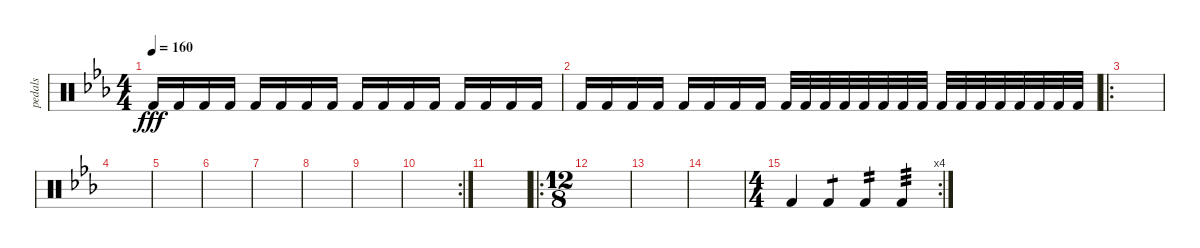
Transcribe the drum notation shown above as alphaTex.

\track ("pedals" "pedals") {instrument percussion}
\staff {score}
\articulation defaults
\ts (4 4)
\tempo 160
\clef neutral
\ks cminor "Kick (hit) 2".16{dy fff} "Kick (hit) 2".16 "Kick (hit) 2".16 "Kick (hit) 2".16 "Kick (hit) 2".16 "Kick (hit) 2".16 "Kick (hit) 2".16 "Kick (hit) 2".16 "Kick (hit) 2".16 "Kick (hit) 2".16 "Kick (hit) 2".16 "Kick (hit) 2".16 "Kick (hit) 2".16 "Kick (hit) 2".16 "Kick (hit) 2".16 "Kick (hit) 2".16
|
"Kick (hit) 2".16 "Kick (hit) 2".16 "Kick (hit) 2".16 "Kick (hit) 2".16 "Kick (hit) 2".16 "Kick (hit) 2".16 "Kick (hit) 2".16 "Kick (hit) 2".16 "Kick (hit) 2".32 "Kick (hit) 2".32 "Kick (hit) 2".32 "Kick (hit) 2".32 "Kick (hit) 2".32 "Kick (hit) 2".32 "Kick (hit) 2".32 "Kick (hit) 2".32 "Kick (hit) 2".32 "Kick (hit) 2".32 "Kick (hit) 2".32 "Kick (hit) 2".32 "Kick (hit) 2".32 "Kick (hit) 2".32 "Kick (hit) 2".32 "Kick (hit) 2".32 |
\ro
|
|
|
|
|
|
|
\rc 2
|
|
\ro
\ts (12 8)
|
|
|
\rc 4
\ts (4 4)
"Kick (hit) 2".4 "Kick (hit) 2".4{tp 1} "Kick (hit) 2".4{tp 2} "Kick (hit) 2".4{tp 3}
